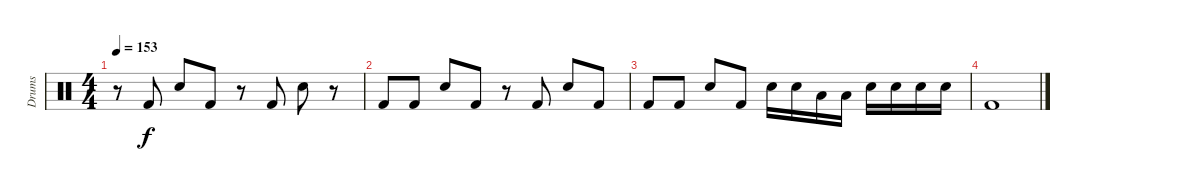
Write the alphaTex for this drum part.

\track ("Drums" "Drums") {instrument percussion}
\staff {score}
\articulation defaults
\ts (4 4)
\tempo 153
\clef neutral
\ks c
r.8{dy f} "Kick (hit) 2".8 "Snare (hit) 2".8 "Kick (hit) 2".8 r.8 "Kick (hit) 2".8 "Snare (hit) 2".8 r.8 |
"Kick (hit) 2".8 "Kick (hit) 2".8 "Snare (hit) 2".8 "Kick (hit) 2".8 r.8 "Kick (hit) 2".8 "Snare (hit) 2".8 "Kick (hit) 2".8 |
"Kick (hit) 2".8 "Kick (hit) 2".8 "Snare (hit) 2".8 "Kick (hit) 2".8 "Snare (hit) 2".16 "Snare (hit) 2".16 "Low Tom (hit)".16 "Low Tom (hit)".16 "Snare (hit) 2".16 "Snare (hit) 2".16 "Snare (hit) 2".16 "Snare (hit) 2".16 |
"Kick (hit) 2".1
